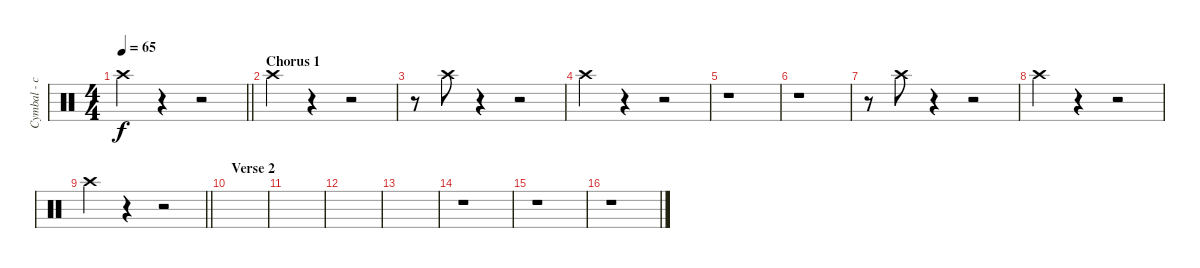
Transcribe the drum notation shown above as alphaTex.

\track ("Cymbal - crash - right" "Cymbal - c") {instrument percussion}
\staff {score}
\articulation defaults
\ts (4 4)
\tempo 65
\clef neutral
\barLineRight lightlight
\ks c "Crash high (hit)".4{dy f}
r.4 r.2 |
\section ("" "Chorus 1")
"Crash high (hit)".4 r.4 r.2 |
r.8 "Crash high (hit)".8 r.4 r.2 |
"Crash high (hit)".4 r.4 r.2 |
r.1 |
r.1 |
r.8 "Crash high (hit)".8 r.4 r.2 |
"Crash high (hit)".4 r.4 r.2 |
\barLineRight lightlight "Crash high (hit)".4
r.4 r.2 |
\section ("" "Verse 2")
|
|
|
|
r.1 |
r.1 |
r.1
